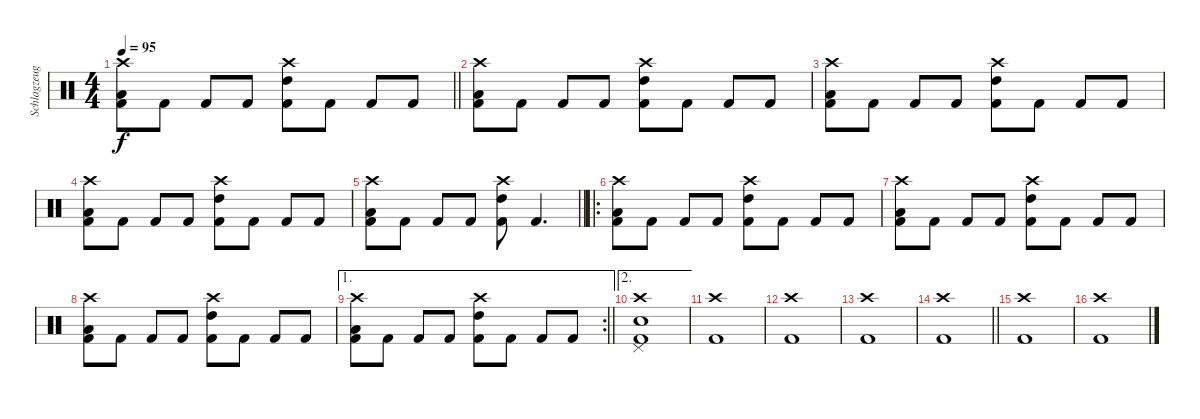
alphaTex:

\track ("Schlagzeug" "Schlagzeug") {instrument percussion}
\staff {score}
\articulation defaults
\ts (4 4)
\tempo 95
\clef neutral
\barLineRight lightlight
\ks c
("Crash high (hit)" "Low Tom (hit)" "Kick (hit) 2").8{dy f} "Kick (hit) 2".8 "Kick (hit) 2".8 "Kick (hit) 2".8 ("Crash high (hit)" "High Tom (hit)" "Kick (hit) 2").8 "Kick (hit) 2".8 "Kick (hit) 2".8 "Kick (hit) 2".8 |
("Crash high (hit)" "Low Tom (hit)" "Kick (hit) 2").8 "Kick (hit) 2".8 "Kick (hit) 2".8 "Kick (hit) 2".8 ("Crash high (hit)" "High Tom (hit)" "Kick (hit) 2").8 "Kick (hit) 2".8 "Kick (hit) 2".8 "Kick (hit) 2".8 |
("Crash high (hit)" "Low Tom (hit)" "Kick (hit) 2").8 "Kick (hit) 2".8 "Kick (hit) 2".8 "Kick (hit) 2".8 ("Crash high (hit)" "High Tom (hit)" "Kick (hit) 2").8 "Kick (hit) 2".8 "Kick (hit) 2".8 "Kick (hit) 2".8 |
("Crash high (hit)" "Low Tom (hit)" "Kick (hit) 2").8 "Kick (hit) 2".8 "Kick (hit) 2".8 "Kick (hit) 2".8 ("Crash high (hit)" "High Tom (hit)" "Kick (hit) 2").8 "Kick (hit) 2".8 "Kick (hit) 2".8 "Kick (hit) 2".8 |
\barLineRight lightlight
("Crash high (hit)" "Low Tom (hit)" "Kick (hit) 2").8 "Kick (hit) 2".8 "Kick (hit) 2".8 "Kick (hit) 2".8 ("Crash high (hit)" "High Tom (hit)" "Kick (hit) 2").8 "Kick (hit) 2".4{d} |
\ro
("Crash high (hit)" "Low Tom (hit)" "Kick (hit) 2").8 "Kick (hit) 2".8 "Kick (hit) 2".8 "Kick (hit) 2".8 ("Crash high (hit)" "High Tom (hit)" "Kick (hit) 2").8 "Kick (hit) 2".8 "Kick (hit) 2".8 "Kick (hit) 2".8 |
("Crash high (hit)" "Low Tom (hit)" "Kick (hit) 2").8 "Kick (hit) 2".8 "Kick (hit) 2".8 "Kick (hit) 2".8 ("Crash high (hit)" "High Tom (hit)" "Kick (hit) 2").8 "Kick (hit) 2".8 "Kick (hit) 2".8 "Kick (hit) 2".8 |
("Crash high (hit)" "Low Tom (hit)" "Kick (hit) 2").8 "Kick (hit) 2".8 "Kick (hit) 2".8 "Kick (hit) 2".8 ("Crash high (hit)" "High Tom (hit)" "Kick (hit) 2").8 "Kick (hit) 2".8 "Kick (hit) 2".8 "Kick (hit) 2".8 |
\ae 1
\rc 2
\barLineRight lightlight
("Crash high (hit)" "Low Tom (hit)" "Kick (hit) 2").8 "Kick (hit) 2".8 "Kick (hit) 2".8 "Kick (hit) 2".8 ("Crash high (hit)" "High Tom (hit)" "Kick (hit) 2").8 "Kick (hit) 2".8 "Kick (hit) 2".8 "Kick (hit) 2".8 |
\ae 2
("Crash high (hit)" "Pedal Hi-Hat (hit)" "Snare (hit) 2" "Kick (hit) 2").1 |
("Crash high (hit)" "Kick (hit) 2").1 |
("Crash high (hit)" "Kick (hit) 2").1 |
("Crash high (hit)" "Kick (hit) 2").1 |
\barLineRight lightlight
("Crash high (hit)" "Kick (hit) 2").1 |
("Crash high (hit)" "Kick (hit) 2").1 |
("Crash high (hit)" "Kick (hit) 2").1
